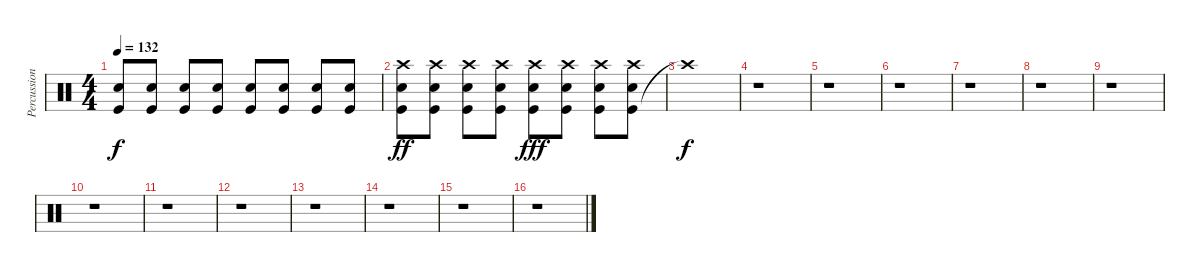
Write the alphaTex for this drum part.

\track ("Percussion" "Percussion") {instrument percussion}
\staff {score}
\articulation defaults
\ts (4 4)
\tempo 132
\clef neutral
\ks c
("Kick (hit)" "Electric Snare (hit)").8{dy f} ("Kick (hit)" "Electric Snare (hit)").8 ("Kick (hit)" "Electric Snare (hit)").8 ("Kick (hit)" "Electric Snare (hit)").8 ("Kick (hit)" "Electric Snare (hit)").8 ("Kick (hit)" "Electric Snare (hit)").8 ("Kick (hit)" "Electric Snare (hit)").8 ("Kick (hit)" "Electric Snare (hit)").8 |
("Kick (hit)" "Electric Snare (hit)" "Crash high (hit)").8{dy ff} ("Kick (hit)" "Electric Snare (hit)" "Crash high (hit)").8 ("Kick (hit)" "Electric Snare (hit)" "Crash high (hit)").8 ("Kick (hit)" "Electric Snare (hit)" "Crash high (hit)").8 ("Kick (hit)" "Electric Snare (hit)" "Crash high (hit)").8{dy fff} ("Kick (hit)" "Electric Snare (hit)" "Crash high (hit)").8 ("Kick (hit)" "Electric Snare (hit)" "Crash high (hit)").8 ("Kick (hit)" "Electric Snare (hit)" "Crash high (hit)").8 |
"Crash high (hit)"{t}.1{dy f} |
r.1 |
r.1 |
r.1 |
r.1 |
r.1 |
r.1 |
r.1 |
r.1 |
r.1 |
r.1 |
r.1 |
r.1 |
r.1
